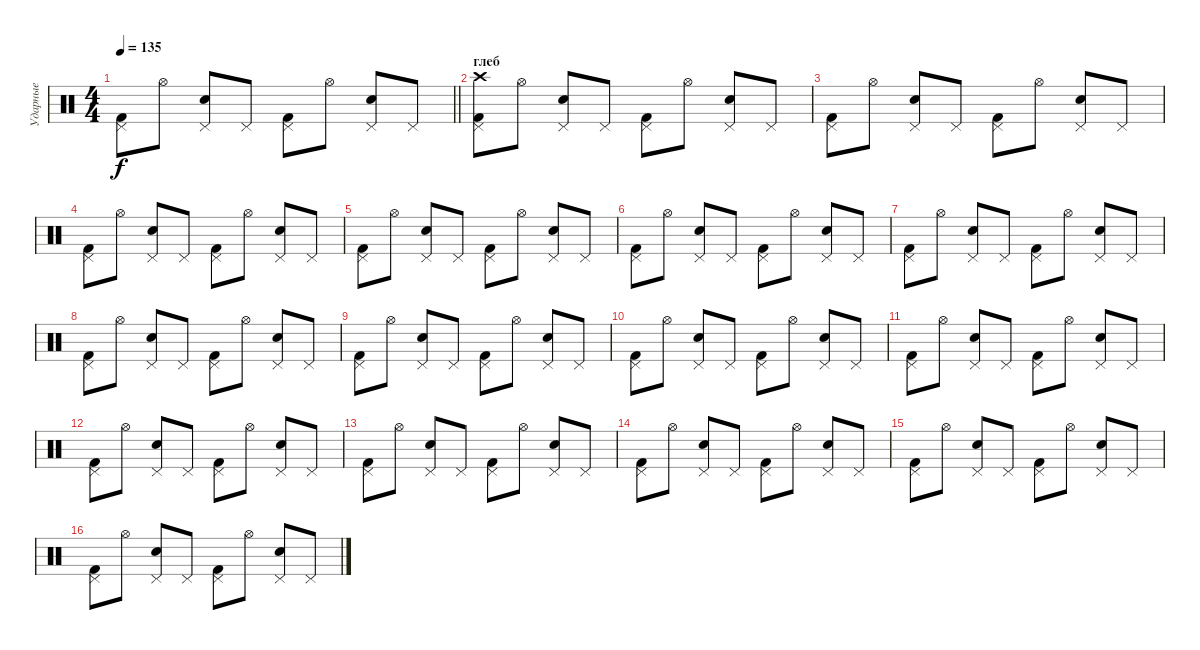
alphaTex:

\track ("Ударные" "Ударные") {instrument percussion}
\staff {score}
\articulation defaults
\ts (4 4)
\tempo 135
\clef neutral
\barLineRight lightlight
\ks c
("Pedal Hi-Hat (hit)" "Kick (hit) 2").8{dy f} "Hi-Hat (open)".8 ("Pedal Hi-Hat (hit)" "Snare (hit) 2").8 "Pedal Hi-Hat (hit)".8 ("Pedal Hi-Hat (hit)" "Kick (hit) 2").8 "Hi-Hat (open)".8 ("Pedal Hi-Hat (hit)" "Snare (hit) 2").8 "Pedal Hi-Hat (hit)".8 |
\section ("" "глеб")
("Pedal Hi-Hat (hit)" "Kick (hit) 2" "Crash high (hit)").8 "Hi-Hat (open)".8 ("Pedal Hi-Hat (hit)" "Snare (hit) 2").8 "Pedal Hi-Hat (hit)".8 ("Pedal Hi-Hat (hit)" "Kick (hit) 2").8 "Hi-Hat (open)".8 ("Pedal Hi-Hat (hit)" "Snare (hit) 2").8 "Pedal Hi-Hat (hit)".8 |
("Pedal Hi-Hat (hit)" "Kick (hit) 2").8 "Hi-Hat (open)".8 ("Pedal Hi-Hat (hit)" "Snare (hit) 2").8 "Pedal Hi-Hat (hit)".8 ("Pedal Hi-Hat (hit)" "Kick (hit) 2").8 "Hi-Hat (open)".8 ("Pedal Hi-Hat (hit)" "Snare (hit) 2").8 "Pedal Hi-Hat (hit)".8 |
("Pedal Hi-Hat (hit)" "Kick (hit) 2").8 "Hi-Hat (open)".8 ("Pedal Hi-Hat (hit)" "Snare (hit) 2").8 "Pedal Hi-Hat (hit)".8 ("Pedal Hi-Hat (hit)" "Kick (hit) 2").8 "Hi-Hat (open)".8 ("Pedal Hi-Hat (hit)" "Snare (hit) 2").8 "Pedal Hi-Hat (hit)".8 |
("Pedal Hi-Hat (hit)" "Kick (hit) 2").8 "Hi-Hat (open)".8 ("Pedal Hi-Hat (hit)" "Snare (hit) 2").8 "Pedal Hi-Hat (hit)".8 ("Pedal Hi-Hat (hit)" "Kick (hit) 2").8 "Hi-Hat (open)".8 ("Pedal Hi-Hat (hit)" "Snare (hit) 2").8 "Pedal Hi-Hat (hit)".8 |
("Pedal Hi-Hat (hit)" "Kick (hit) 2").8 "Hi-Hat (open)".8 ("Pedal Hi-Hat (hit)" "Snare (hit) 2").8 "Pedal Hi-Hat (hit)".8 ("Pedal Hi-Hat (hit)" "Kick (hit) 2").8 "Hi-Hat (open)".8 ("Pedal Hi-Hat (hit)" "Snare (hit) 2").8 "Pedal Hi-Hat (hit)".8 |
("Pedal Hi-Hat (hit)" "Kick (hit) 2").8 "Hi-Hat (open)".8 ("Pedal Hi-Hat (hit)" "Snare (hit) 2").8 "Pedal Hi-Hat (hit)".8 ("Pedal Hi-Hat (hit)" "Kick (hit) 2").8 "Hi-Hat (open)".8 ("Pedal Hi-Hat (hit)" "Snare (hit) 2").8 "Pedal Hi-Hat (hit)".8 |
("Pedal Hi-Hat (hit)" "Kick (hit) 2").8 "Hi-Hat (open)".8 ("Pedal Hi-Hat (hit)" "Snare (hit) 2").8 "Pedal Hi-Hat (hit)".8 ("Pedal Hi-Hat (hit)" "Kick (hit) 2").8 "Hi-Hat (open)".8 ("Pedal Hi-Hat (hit)" "Snare (hit) 2").8 "Pedal Hi-Hat (hit)".8 |
("Pedal Hi-Hat (hit)" "Kick (hit) 2").8 "Hi-Hat (open)".8 ("Pedal Hi-Hat (hit)" "Snare (hit) 2").8 "Pedal Hi-Hat (hit)".8 ("Pedal Hi-Hat (hit)" "Kick (hit) 2").8 "Hi-Hat (open)".8 ("Pedal Hi-Hat (hit)" "Snare (hit) 2").8 "Pedal Hi-Hat (hit)".8 |
("Pedal Hi-Hat (hit)" "Kick (hit) 2").8 "Hi-Hat (open)".8 ("Pedal Hi-Hat (hit)" "Snare (hit) 2").8 "Pedal Hi-Hat (hit)".8 ("Pedal Hi-Hat (hit)" "Kick (hit) 2").8 "Hi-Hat (open)".8 ("Pedal Hi-Hat (hit)" "Snare (hit) 2").8 "Pedal Hi-Hat (hit)".8 |
("Pedal Hi-Hat (hit)" "Kick (hit) 2").8 "Hi-Hat (open)".8 ("Pedal Hi-Hat (hit)" "Snare (hit) 2").8 "Pedal Hi-Hat (hit)".8 ("Pedal Hi-Hat (hit)" "Kick (hit) 2").8 "Hi-Hat (open)".8 ("Pedal Hi-Hat (hit)" "Snare (hit) 2").8 "Pedal Hi-Hat (hit)".8 |
("Pedal Hi-Hat (hit)" "Kick (hit) 2").8 "Hi-Hat (open)".8 ("Pedal Hi-Hat (hit)" "Snare (hit) 2").8 "Pedal Hi-Hat (hit)".8 ("Pedal Hi-Hat (hit)" "Kick (hit) 2").8 "Hi-Hat (open)".8 ("Pedal Hi-Hat (hit)" "Snare (hit) 2").8 "Pedal Hi-Hat (hit)".8 |
("Pedal Hi-Hat (hit)" "Kick (hit) 2").8 "Hi-Hat (open)".8 ("Pedal Hi-Hat (hit)" "Snare (hit) 2").8 "Pedal Hi-Hat (hit)".8 ("Pedal Hi-Hat (hit)" "Kick (hit) 2").8 "Hi-Hat (open)".8 ("Pedal Hi-Hat (hit)" "Snare (hit) 2").8 "Pedal Hi-Hat (hit)".8 |
("Pedal Hi-Hat (hit)" "Kick (hit) 2").8 "Hi-Hat (open)".8 ("Pedal Hi-Hat (hit)" "Snare (hit) 2").8 "Pedal Hi-Hat (hit)".8 ("Pedal Hi-Hat (hit)" "Kick (hit) 2").8 "Hi-Hat (open)".8 ("Pedal Hi-Hat (hit)" "Snare (hit) 2").8 "Pedal Hi-Hat (hit)".8 |
("Pedal Hi-Hat (hit)" "Kick (hit) 2").8 "Hi-Hat (open)".8 ("Pedal Hi-Hat (hit)" "Snare (hit) 2").8 "Pedal Hi-Hat (hit)".8 ("Pedal Hi-Hat (hit)" "Kick (hit) 2").8 "Hi-Hat (open)".8 ("Pedal Hi-Hat (hit)" "Snare (hit) 2").8 "Pedal Hi-Hat (hit)".8 |
("Pedal Hi-Hat (hit)" "Kick (hit) 2").8 "Hi-Hat (open)".8 ("Pedal Hi-Hat (hit)" "Snare (hit) 2").8 "Pedal Hi-Hat (hit)".8 ("Pedal Hi-Hat (hit)" "Kick (hit) 2").8 "Hi-Hat (open)".8 ("Pedal Hi-Hat (hit)" "Snare (hit) 2").8 "Pedal Hi-Hat (hit)".8
